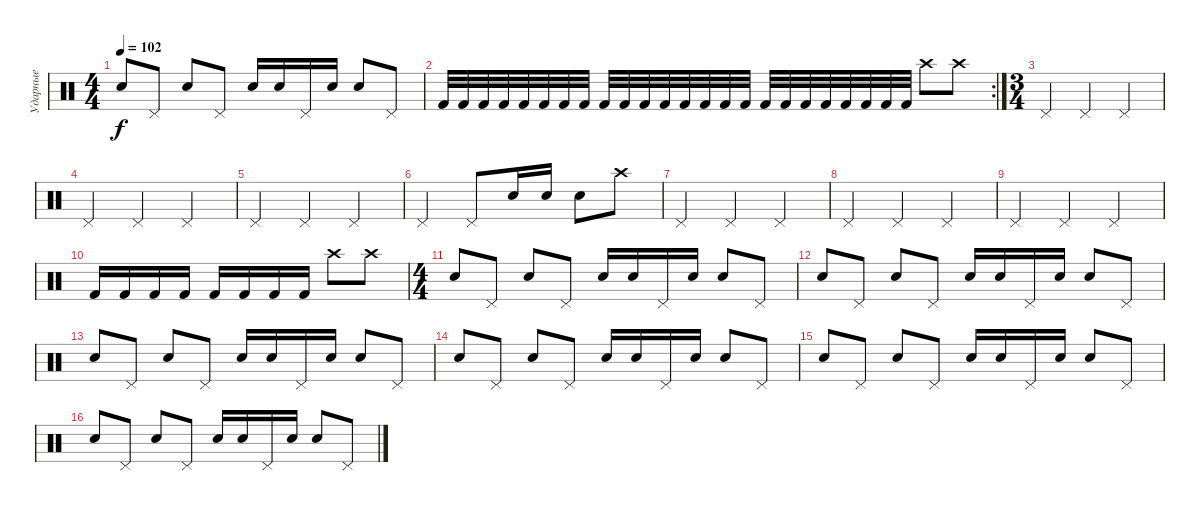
\track ("Ударные" "Ударные") {instrument percussion}
\staff {score}
\articulation defaults
\ts (4 4)
\tempo 102
\clef neutral
\ks c "Snare (hit) 2".8{dy f} "Pedal Hi-Hat (hit)".8 "Snare (hit) 2".8 "Pedal Hi-Hat (hit)".8 "Snare (hit) 2".16 "Snare (hit) 2".16 "Pedal Hi-Hat (hit)".16 "Snare (hit) 2".16 "Snare (hit) 2".8 "Pedal Hi-Hat (hit)".8
|
\rc 2 "Kick (hit) 2".32 "Kick (hit) 2".32 "Kick (hit) 2".32 "Kick (hit) 2".32 "Kick (hit) 2".32 "Kick (hit) 2".32 "Kick (hit) 2".32 "Kick (hit) 2".32 "Kick (hit) 2".32 "Kick (hit) 2".32 "Kick (hit) 2".32 "Kick (hit) 2".32 "Kick (hit) 2".32 "Kick (hit) 2".32 "Kick (hit) 2".32 "Kick (hit) 2".32 "Kick (hit) 2".32 "Kick (hit) 2".32 "Kick (hit) 2".32 "Kick (hit) 2".32 "Kick (hit) 2".32 "Kick (hit) 2".32 "Kick (hit) 2".32 "Kick (hit) 2".32 "Crash high (hit)".8 "Crash high (hit)".8
|
\ts (3 4)
"Pedal Hi-Hat (hit)".4 "Pedal Hi-Hat (hit)".4 "Pedal Hi-Hat (hit)".4 |
"Pedal Hi-Hat (hit)".4 "Pedal Hi-Hat (hit)".4 "Pedal Hi-Hat (hit)".4 |
"Pedal Hi-Hat (hit)".4 "Pedal Hi-Hat (hit)".4 "Pedal Hi-Hat (hit)".4 |
"Pedal Hi-Hat (hit)".4 "Pedal Hi-Hat (hit)".8 "Snare (hit) 2".16 "Snare (hit) 2".16 "Snare (hit) 2".8 "Crash high (hit)".8 |
"Pedal Hi-Hat (hit)".4 "Pedal Hi-Hat (hit)".4 "Pedal Hi-Hat (hit)".4 |
"Pedal Hi-Hat (hit)".4 "Pedal Hi-Hat (hit)".4 "Pedal Hi-Hat (hit)".4 |
"Pedal Hi-Hat (hit)".4 "Pedal Hi-Hat (hit)".4 "Pedal Hi-Hat (hit)".4 |
"Kick (hit) 2".16 "Kick (hit) 2".16 "Kick (hit) 2".16 "Kick (hit) 2".16 "Kick (hit) 2".16 "Kick (hit) 2".16 "Kick (hit) 2".16 "Kick (hit) 2".16 "Crash high (hit)".8 "Crash high (hit)".8 |
\ts (4 4)
"Snare (hit) 2".8 "Pedal Hi-Hat (hit)".8 "Snare (hit) 2".8 "Pedal Hi-Hat (hit)".8 "Snare (hit) 2".16 "Snare (hit) 2".16 "Pedal Hi-Hat (hit)".16 "Snare (hit) 2".16 "Snare (hit) 2".8 "Pedal Hi-Hat (hit)".8 |
"Snare (hit) 2".8 "Pedal Hi-Hat (hit)".8 "Snare (hit) 2".8 "Pedal Hi-Hat (hit)".8 "Snare (hit) 2".16 "Snare (hit) 2".16 "Pedal Hi-Hat (hit)".16 "Snare (hit) 2".16 "Snare (hit) 2".8 "Pedal Hi-Hat (hit)".8 |
"Snare (hit) 2".8 "Pedal Hi-Hat (hit)".8 "Snare (hit) 2".8 "Pedal Hi-Hat (hit)".8 "Snare (hit) 2".16 "Snare (hit) 2".16 "Pedal Hi-Hat (hit)".16 "Snare (hit) 2".16 "Snare (hit) 2".8 "Pedal Hi-Hat (hit)".8 |
"Snare (hit) 2".8 "Pedal Hi-Hat (hit)".8 "Snare (hit) 2".8 "Pedal Hi-Hat (hit)".8 "Snare (hit) 2".16 "Snare (hit) 2".16 "Pedal Hi-Hat (hit)".16 "Snare (hit) 2".16 "Snare (hit) 2".8 "Pedal Hi-Hat (hit)".8 |
"Snare (hit) 2".8 "Pedal Hi-Hat (hit)".8 "Snare (hit) 2".8 "Pedal Hi-Hat (hit)".8 "Snare (hit) 2".16 "Snare (hit) 2".16 "Pedal Hi-Hat (hit)".16 "Snare (hit) 2".16 "Snare (hit) 2".8 "Pedal Hi-Hat (hit)".8 |
"Snare (hit) 2".8 "Pedal Hi-Hat (hit)".8 "Snare (hit) 2".8 "Pedal Hi-Hat (hit)".8 "Snare (hit) 2".16 "Snare (hit) 2".16 "Pedal Hi-Hat (hit)".16 "Snare (hit) 2".16 "Snare (hit) 2".8 "Pedal Hi-Hat (hit)".8
